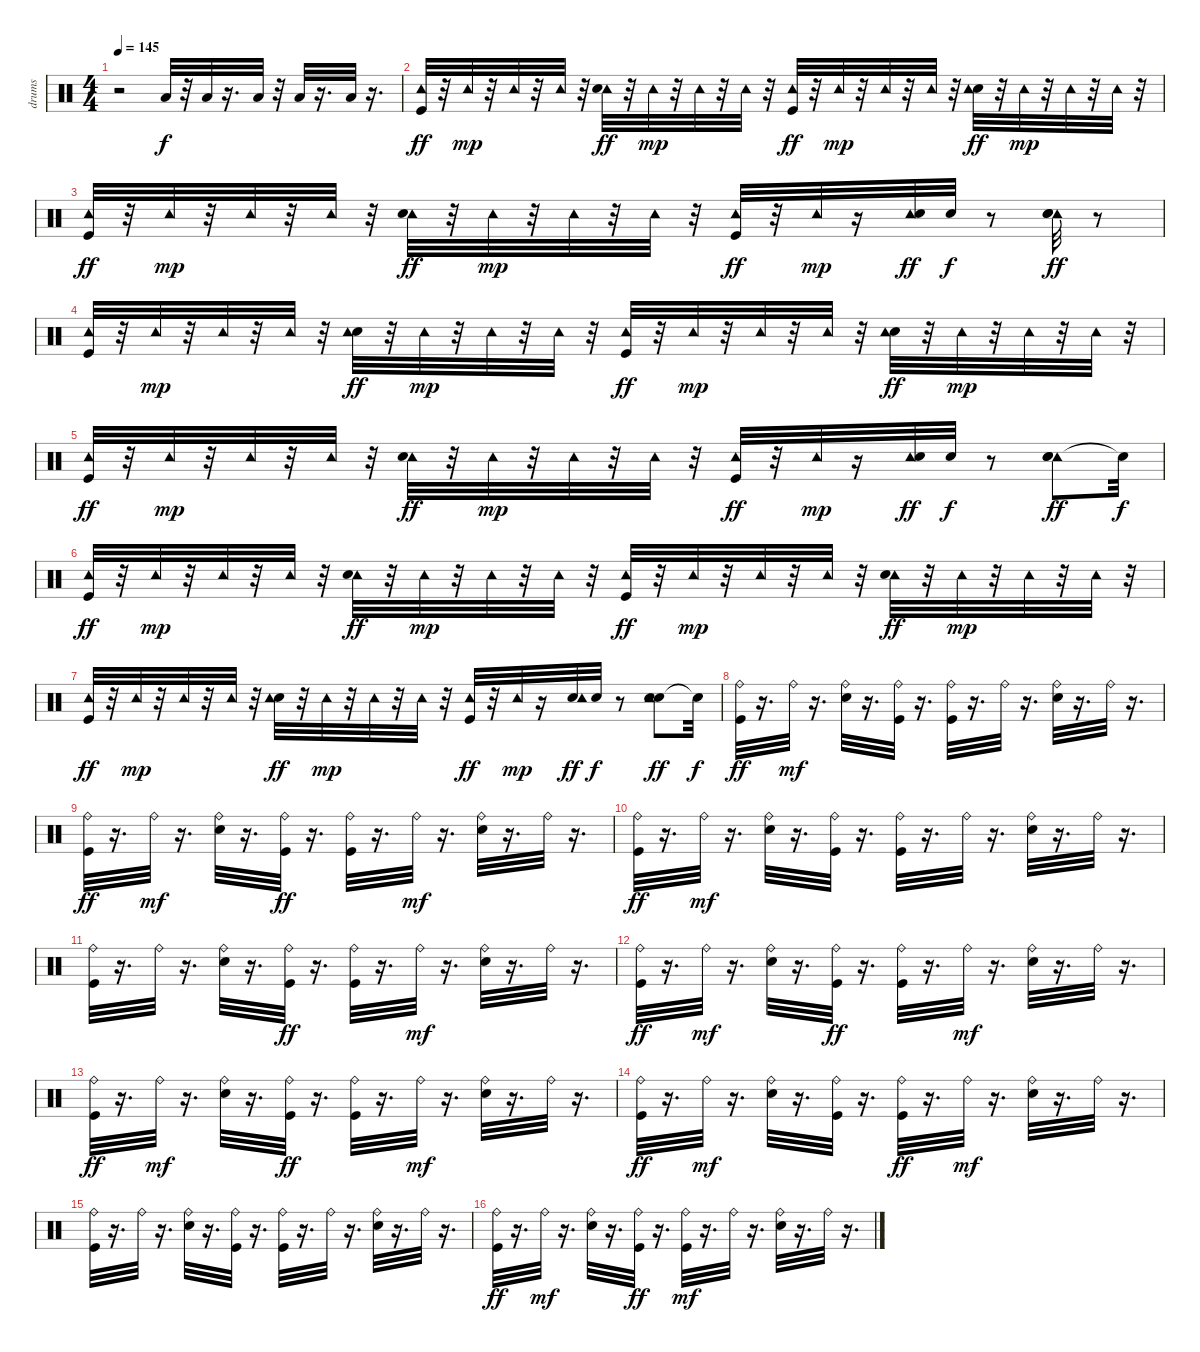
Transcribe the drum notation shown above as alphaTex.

\track ("drums" "drums") {instrument percussion}
\staff {score}
\articulation defaults
\ts (4 4)
\tempo 145
\clef neutral
\ks c
r.2{dy f} "Low Floor Tom (hit)".32 r.32 "Low Floor Tom (hit)".32 r.16{d} "Low Floor Tom (hit)".32 r.32 "Low Floor Tom (hit)".32 r.16{d} "Low Floor Tom (hit)".32 r.16{d} |
("Kick (hit)" "Tambourine (hit)").32{dy ff} r.32 "Tambourine (hit)".32{dy mp} r.32 "Tambourine (hit)".32 r.32 "Tambourine (hit)".32 r.32 ("Tambourine (hit)" "Snare (hit) 2").32{dy ff} r.32 "Tambourine (hit)".32{dy mp} r.32 "Tambourine (hit)".32 r.32 "Tambourine (hit)".32 r.32 ("Kick (hit)" "Tambourine (hit)").32{dy ff} r.32 "Tambourine (hit)".32{dy mp} r.32 "Tambourine (hit)".32 r.32 "Tambourine (hit)".32 r.32 ("Snare (hit) 2" "Tambourine (hit)").32{dy ff} r.32 "Tambourine (hit)".32{dy mp} r.32 "Tambourine (hit)".32 r.32 "Tambourine (hit)".32 r.32 |
("Kick (hit)" "Tambourine (hit)").32{dy ff} r.32 "Tambourine (hit)".32{dy mp} r.32 "Tambourine (hit)".32 r.32 "Tambourine (hit)".32 r.32 ("Tambourine (hit)" "Snare (hit) 2").32{dy ff} r.32 "Tambourine (hit)".32{dy mp} r.32 "Tambourine (hit)".32 r.32 "Tambourine (hit)".32 r.32 ("Kick (hit)" "Tambourine (hit)").32{dy ff} r.32 "Tambourine (hit)".32{dy mp} r.16 ("Tambourine (hit)" "Snare (hit) 2").32{dy ff} "Snare (hit) 2".32{dy f} r.8 ("Tambourine (hit)" "Snare (hit) 2" "Snare (hit) 2").32{dy ff} r.8 |
("Kick (hit)" "Tambourine (hit)").32 r.32 "Tambourine (hit)".32{dy mp} r.32 "Tambourine (hit)".32 r.32 "Tambourine (hit)".32 r.32 ("Snare (hit) 2" "Tambourine (hit)").32{dy ff} r.32 "Tambourine (hit)".32{dy mp} r.32 "Tambourine (hit)".32 r.32 "Tambourine (hit)".32 r.32 ("Kick (hit)" "Tambourine (hit)").32{dy ff} r.32 "Tambourine (hit)".32{dy mp} r.32 "Tambourine (hit)".32 r.32 "Tambourine (hit)".32 r.32 ("Snare (hit) 2" "Tambourine (hit)").32{dy ff} r.32 "Tambourine (hit)".32{dy mp} r.32 "Tambourine (hit)".32 r.32 "Tambourine (hit)".32 r.32 |
("Kick (hit)" "Tambourine (hit)").32{dy ff} r.32 "Tambourine (hit)".32{dy mp} r.32 "Tambourine (hit)".32 r.32 "Tambourine (hit)".32 r.32 ("Tambourine (hit)" "Snare (hit) 2").32{dy ff} r.32 "Tambourine (hit)".32{dy mp} r.32 "Tambourine (hit)".32 r.32 "Tambourine (hit)".32 r.32 ("Tambourine (hit)" "Kick (hit)").32{dy ff} r.32 "Tambourine (hit)".32{dy mp} r.16 ("Tambourine (hit)" "Snare (hit) 2").32{dy ff} "Snare (hit) 2".32{dy f} r.8 ("Tambourine (hit)" "Snare (hit) 2" "Snare (hit) 2").8{dy ff} "Snare (hit)"{t}.32{dy f} |
("Tambourine (hit)" "Kick (hit)").32{dy ff} r.32 "Tambourine (hit)".32{dy mp} r.32 "Tambourine (hit)".32 r.32 "Tambourine (hit)".32 r.32 ("Tambourine (hit)" "Snare (hit) 2").32{dy ff} r.32 "Tambourine (hit)".32{dy mp} r.32 "Tambourine (hit)".32 r.32 "Tambourine (hit)".32 r.32 ("Tambourine (hit)" "Kick (hit)").32{dy ff} r.32 "Tambourine (hit)".32{dy mp} r.32 "Tambourine (hit)".32 r.32 "Tambourine (hit)".32 r.32 ("Tambourine (hit)" "Snare (hit) 2").32{dy ff} r.32 "Tambourine (hit)".32{dy mp} r.32 "Tambourine (hit)".32 r.32 "Tambourine (hit)".32 r.32 |
("Kick (hit)" "Tambourine (hit)").32{dy ff} r.32 "Tambourine (hit)".32{dy mp} r.32 "Tambourine (hit)".32 r.32 "Tambourine (hit)".32 r.32 ("Snare (hit) 2" "Tambourine (hit)").32{dy ff} r.32 "Tambourine (hit)".32{dy mp} r.32 "Tambourine (hit)".32 r.32 "Tambourine (hit)".32 r.32 ("Tambourine (hit)" "Kick (hit)").32{dy ff} r.32 "Tambourine (hit)".32{dy mp} r.16 ("Snare (hit) 2" "Tambourine (hit)").32{dy ff} "Snare (hit) 2".32{dy f} r.8 ("Snare (hit) 2" "Tambourine (hit)" "Snare (hit) 2").8{dy ff} "Snare (hit)"{t}.32{dy f} |
("Ride (bell)" "Kick (hit)").32{dy ff} r.16{d} "Ride (bell)".32{dy mf} r.16{d} ("Snare (hit) 2" "Ride (bell)").32 r.16{d} ("Kick (hit)" "Ride (bell)").32 r.16{d} ("Kick (hit)" "Ride (bell)").32 r.16{d} "Ride (bell)".32 r.16{d} ("Ride (bell)" "Snare (hit) 2").32 r.16{d} "Ride (bell)".32 r.16{d} |
("Ride (bell)" "Kick (hit)").32{dy ff} r.16{d} "Ride (bell)".32{dy mf} r.16{d} ("Snare (hit) 2" "Ride (bell)").32 r.16{d} ("Ride (bell)" "Kick (hit)").32{dy ff} r.16{d} ("Ride (bell)" "Kick (hit)").32 r.16{d} "Ride (bell)".32{dy mf} r.16{d} ("Snare (hit) 2" "Ride (bell)").32 r.16{d} "Ride (bell)".32 r.16{d} |
("Ride (bell)" "Kick (hit)").32{dy ff} r.16{d} "Ride (bell)".32{dy mf} r.16{d} ("Ride (bell)" "Snare (hit) 2").32 r.16{d} ("Kick (hit)" "Ride (bell)").32 r.16{d} ("Kick (hit)" "Ride (bell)").32 r.16{d} "Ride (bell)".32 r.16{d} ("Snare (hit) 2" "Ride (bell)").32 r.16{d} "Ride (bell)".32 r.16{d} |
("Kick (hit)" "Ride (bell)").32 r.16{d} "Ride (bell)".32 r.16{d} ("Ride (bell)" "Snare (hit) 2").32 r.16{d} ("Ride (bell)" "Kick (hit)").32{dy ff} r.16{d} ("Ride (bell)" "Kick (hit)").32 r.16{d} "Ride (bell)".32{dy mf} r.16{d} ("Ride (bell)" "Snare (hit) 2").32 r.16{d} "Ride (bell)".32 r.16{d} |
("Ride (bell)" "Kick (hit)").32{dy ff} r.16{d} "Ride (bell)".32{dy mf} r.16{d} ("Ride (bell)" "Snare (hit) 2").32 r.16{d} ("Ride (bell)" "Kick (hit)").32{dy ff} r.16{d} ("Ride (bell)" "Kick (hit)").32 r.16{d} "Ride (bell)".32{dy mf} r.16{d} ("Snare (hit) 2" "Ride (bell)").32 r.16{d} "Ride (bell)".32 r.16{d} |
("Ride (bell)" "Kick (hit)").32{dy ff} r.16{d} "Ride (bell)".32{dy mf} r.16{d} ("Snare (hit) 2" "Ride (bell)").32 r.16{d} ("Ride (bell)" "Kick (hit)").32{dy ff} r.16{d} ("Ride (bell)" "Kick (hit)").32 r.16{d} "Ride (bell)".32{dy mf} r.16{d} ("Snare (hit) 2" "Ride (bell)").32 r.16{d} "Ride (bell)".32 r.16{d} |
("Ride (bell)" "Kick (hit)").32{dy ff} r.16{d} "Ride (bell)".32{dy mf} r.16{d} ("Snare (hit) 2" "Ride (bell)").32 r.16{d} ("Kick (hit)" "Ride (bell)").32 r.16{d} ("Ride (bell)" "Kick (hit)").32{dy ff} r.16{d} "Ride (bell)".32{dy mf} r.16{d} ("Snare (hit) 2" "Ride (bell)").32 r.16{d} "Ride (bell)".32 r.16{d} |
("Kick (hit)" "Ride (bell)").32 r.16{d} "Ride (bell)".32 r.16{d} ("Ride (bell)" "Snare (hit) 2").32 r.16{d} ("Kick (hit)" "Ride (bell)").32 r.16{d} ("Kick (hit)" "Ride (bell)").32 r.16{d} "Ride (bell)".32 r.16{d} ("Snare (hit) 2" "Ride (bell)").32 r.16{d} "Ride (bell)".32 r.16{d} |
("Ride (bell)" "Kick (hit)").32{dy ff} r.16{d} "Ride (bell)".32{dy mf} r.16{d} ("Snare (hit) 2" "Ride (bell)").32 r.16{d} ("Ride (bell)" "Kick (hit)").32{dy ff} r.16{d} ("Kick (hit)" "Ride (bell)").32{dy mf} r.16{d} "Ride (bell)".32 r.16{d} ("Ride (bell)" "Snare (hit) 2").32 r.16{d} "Ride (bell)".32 r.16{d}
